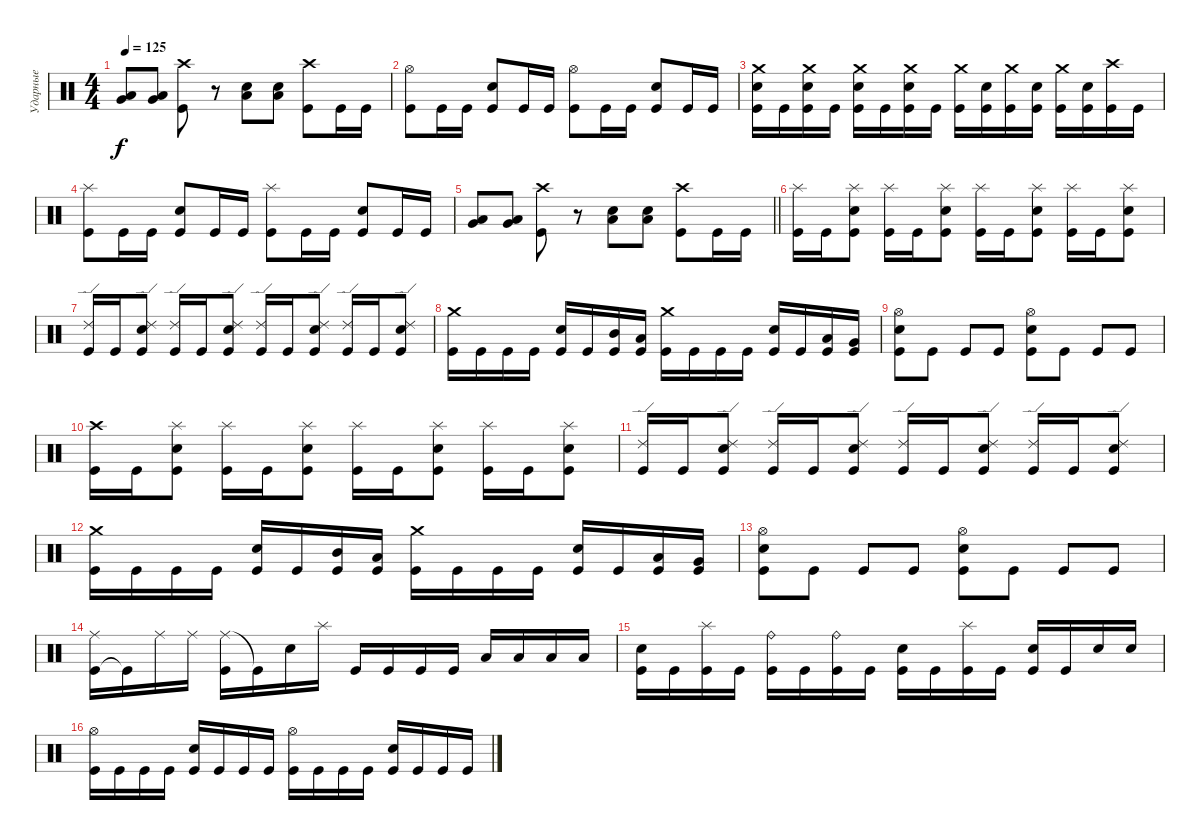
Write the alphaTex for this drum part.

\track ("Ударные" "Ударные") {instrument percussion}
\staff {score}
\articulation defaults
\ts (4 4)
\tempo 125
\clef neutral
\ks c
("Low Tom (hit)" "Very Low Tom (hit)").8{dy f} ("Low Tom (hit)" "Very Low Tom (hit)").8 ("Crash high (hit)" "Kick (hit)").8 r.8 ("Electric Snare (hit)" "Low Floor Tom (hit)").8 ("Electric Snare (hit)" "Low Floor Tom (hit)").8 ("Crash high (hit)" "Kick (hit)").8 "Kick (hit)".16 "Kick (hit)".16 |
("Hi-Hat (open)" "Kick (hit)").8 "Kick (hit)".16 "Kick (hit)".16 ("Electric Snare (hit)" "Kick (hit)").8 "Kick (hit)".16 "Kick (hit)".16 ("Hi-Hat (open)" "Kick (hit)").8 "Kick (hit)".16 "Kick (hit)".16 ("Electric Snare (hit)" "Kick (hit)").8 "Kick (hit)".16 "Kick (hit)".16 |
("Crash medium (hit)" "Kick (hit)" "Electric Snare (hit)").16 "Kick (hit)".16 ("Crash medium (hit)" "Kick (hit)" "Electric Snare (hit)").16 "Kick (hit)".16 ("Crash medium (hit)" "Kick (hit)" "Electric Snare (hit)").16 "Kick (hit)".16 ("Crash medium (hit)" "Kick (hit)" "Electric Snare (hit)").16 "Kick (hit)".16 ("Crash medium (hit)" "Kick (hit)").16 ("Electric Snare (hit)" "Kick (hit)").16 ("Crash medium (hit)" "Kick (hit)").16 ("Electric Snare (hit)" "Kick (hit)").16 ("Crash medium (hit)" "Kick (hit)").16 ("Electric Snare (hit)" "Kick (hit)").16 ("Crash high (hit)" "Kick (hit)").16 "Kick (hit)".16 |
("Splash (hit)" "Kick (hit)").8 "Kick (hit)".16 "Kick (hit)".16 ("Electric Snare (hit)" "Kick (hit)").8 "Kick (hit)".16 "Kick (hit)".16 ("Splash (hit)" "Kick (hit)").8 "Kick (hit)".16 "Kick (hit)".16 ("Electric Snare (hit)" "Kick (hit)").8 "Kick (hit)".16 "Kick (hit)".16 |
\barLineRight lightlight
("Low Tom (hit)" "Very Low Tom (hit)").8 ("Low Tom (hit)" "Very Low Tom (hit)").8 ("Crash high (hit)" "Kick (hit)").8 r.8 ("Electric Snare (hit)" "Low Floor Tom (hit)").8 ("Electric Snare (hit)" "Low Floor Tom (hit)").8 ("Crash high (hit)" "Kick (hit)").8 "Kick (hit)".16 "Kick (hit)".16 |
("Splash (hit)" "Kick (hit)").16 "Kick (hit)".16 ("Splash (hit)" "Electric Snare (hit)" "Kick (hit)").8 ("Splash (hit)" "Kick (hit)").16 "Kick (hit)".16 ("Splash (hit)" "Electric Snare (hit)" "Kick (hit)").8 ("Splash (hit)" "Kick (hit)").16 "Kick (hit)".16 ("Splash (hit)" "Electric Snare (hit)" "Kick (hit)").8 ("Splash (hit)" "Kick (hit)").16 "Kick (hit)".16 ("Splash (hit)" "Electric Snare (hit)" "Kick (hit)").8 |
("Ride (edge) 2" "Kick (hit)").16 "Kick (hit)".16 ("Ride (edge) 2" "Electric Snare (hit)" "Kick (hit)").8 ("Ride (edge) 2" "Kick (hit)").16 "Kick (hit)".16 ("Ride (edge) 2" "Electric Snare (hit)" "Kick (hit)").8 ("Ride (edge) 2" "Kick (hit)").16 "Kick (hit)".16 ("Ride (edge) 2" "Electric Snare (hit)" "Kick (hit)").8 ("Ride (edge) 2" "Kick (hit)").16 "Kick (hit)".16 ("Ride (edge) 2" "Electric Snare (hit)" "Kick (hit)").8 |
("Crash medium (hit)" "Kick (hit)").16 "Kick (hit)".16 "Kick (hit)".16 "Kick (hit)".16 ("Electric Snare (hit)" "Kick (hit)").16 "Kick (hit)".16 ("Mid Tom (hit)" "Kick (hit)").16 ("Low Tom (hit)" "Kick (hit)").16 ("Crash medium (hit)" "Kick (hit)").16 "Kick (hit)".16 "Kick (hit)".16 "Kick (hit)".16 ("Electric Snare (hit)" "Kick (hit)").16 "Kick (hit)".16 ("Low Tom (hit)" "Kick (hit)").16 ("Very Low Tom (hit)" "Kick (hit)").16 |
("Hi-Hat (open)" "Electric Snare (hit)" "Kick (hit)").8 "Kick (hit)".8 "Kick (hit)".8 "Kick (hit)".8 ("Hi-Hat (open)" "Kick (hit)" "Electric Snare (hit)").8 "Kick (hit)".8 "Kick (hit)".8 "Kick (hit)".8 |
("Crash high (hit)" "Kick (hit)").16 "Kick (hit)".16 ("Splash (hit)" "Electric Snare (hit)" "Kick (hit)").8 ("Splash (hit)" "Kick (hit)").16 "Kick (hit)".16 ("Splash (hit)" "Electric Snare (hit)" "Kick (hit)").8 ("Splash (hit)" "Kick (hit)").16 "Kick (hit)".16 ("Splash (hit)" "Electric Snare (hit)" "Kick (hit)").8 ("Splash (hit)" "Kick (hit)").16 "Kick (hit)".16 ("Splash (hit)" "Electric Snare (hit)" "Kick (hit)").8 |
("Ride (edge) 2" "Kick (hit)").16 "Kick (hit)".16 ("Ride (edge) 2" "Electric Snare (hit)" "Kick (hit)").8 ("Ride (edge) 2" "Kick (hit)").16 "Kick (hit)".16 ("Ride (edge) 2" "Electric Snare (hit)" "Kick (hit)").8 ("Ride (edge) 2" "Kick (hit)").16 "Kick (hit)".16 ("Ride (edge) 2" "Electric Snare (hit)" "Kick (hit)").8 ("Ride (edge) 2" "Kick (hit)").16 "Kick (hit)".16 ("Ride (edge) 2" "Electric Snare (hit)" "Kick (hit)").8 |
("Crash medium (hit)" "Kick (hit)").16 "Kick (hit)".16 "Kick (hit)".16 "Kick (hit)".16 ("Electric Snare (hit)" "Kick (hit)").16 "Kick (hit)".16 ("Mid Tom (hit)" "Kick (hit)").16 ("Low Tom (hit)" "Kick (hit)").16 ("Crash medium (hit)" "Kick (hit)").16 "Kick (hit)".16 "Kick (hit)".16 "Kick (hit)".16 ("Electric Snare (hit)" "Kick (hit)").16 "Kick (hit)".16 ("Low Tom (hit)" "Kick (hit)").16 ("Very Low Tom (hit)" "Kick (hit)").16 |
("Hi-Hat (open)" "Electric Snare (hit)" "Kick (hit)").8 "Kick (hit)".8 "Kick (hit)".8 "Kick (hit)".8 ("Hi-Hat (open)" "Kick (hit)" "Electric Snare (hit)").8 "Kick (hit)".8 "Kick (hit)".8 "Kick (hit)".8 |
("Kick (hit)" "Ride (middle)").16 "Kick (hit)"{t}.16 "Ride (middle)".16 "Ride (middle)".16 ("Ride (middle)" "Kick (hit)").16 "Kick (hit)"{t}.16 "Electric Snare (hit)".16 "Splash (hit)".16 "Kick (hit)".16 "Kick (hit)".16 "Kick (hit)".16 "Kick (hit)".16 "Low Tom (hit)".16 "Low Tom (hit)".16 "Low Tom (hit)".16 "Low Tom (hit)".16 |
("Electric Snare (hit)" "Kick (hit)").16 "Kick (hit)".16 ("Splash (hit)" "Kick (hit)").16 "Kick (hit)".16 ("Ride (bell)" "Kick (hit)").16 "Kick (hit)".16 ("Ride (bell)" "Kick (hit)").16 "Kick (hit)".16 ("Electric Snare (hit)" "Kick (hit)").16 "Kick (hit)".16 ("Splash (hit)" "Kick (hit)").16 "Kick (hit)".16 ("Electric Snare (hit)" "Kick (hit)").16 "Kick (hit)".16 "Electric Snare (hit)".16 "Electric Snare (hit)".16 |
("Hi-Hat (open)" "Kick (hit)").16 "Kick (hit)".16 "Kick (hit)".16 "Kick (hit)".16 ("Electric Snare (hit)" "Kick (hit)").16 "Kick (hit)".16 "Kick (hit)".16 "Kick (hit)".16 ("Hi-Hat (open)" "Kick (hit)").16 "Kick (hit)".16 "Kick (hit)".16 "Kick (hit)".16 ("Electric Snare (hit)" "Kick (hit)").16 "Kick (hit)".16 "Kick (hit)".16 "Kick (hit)".16
